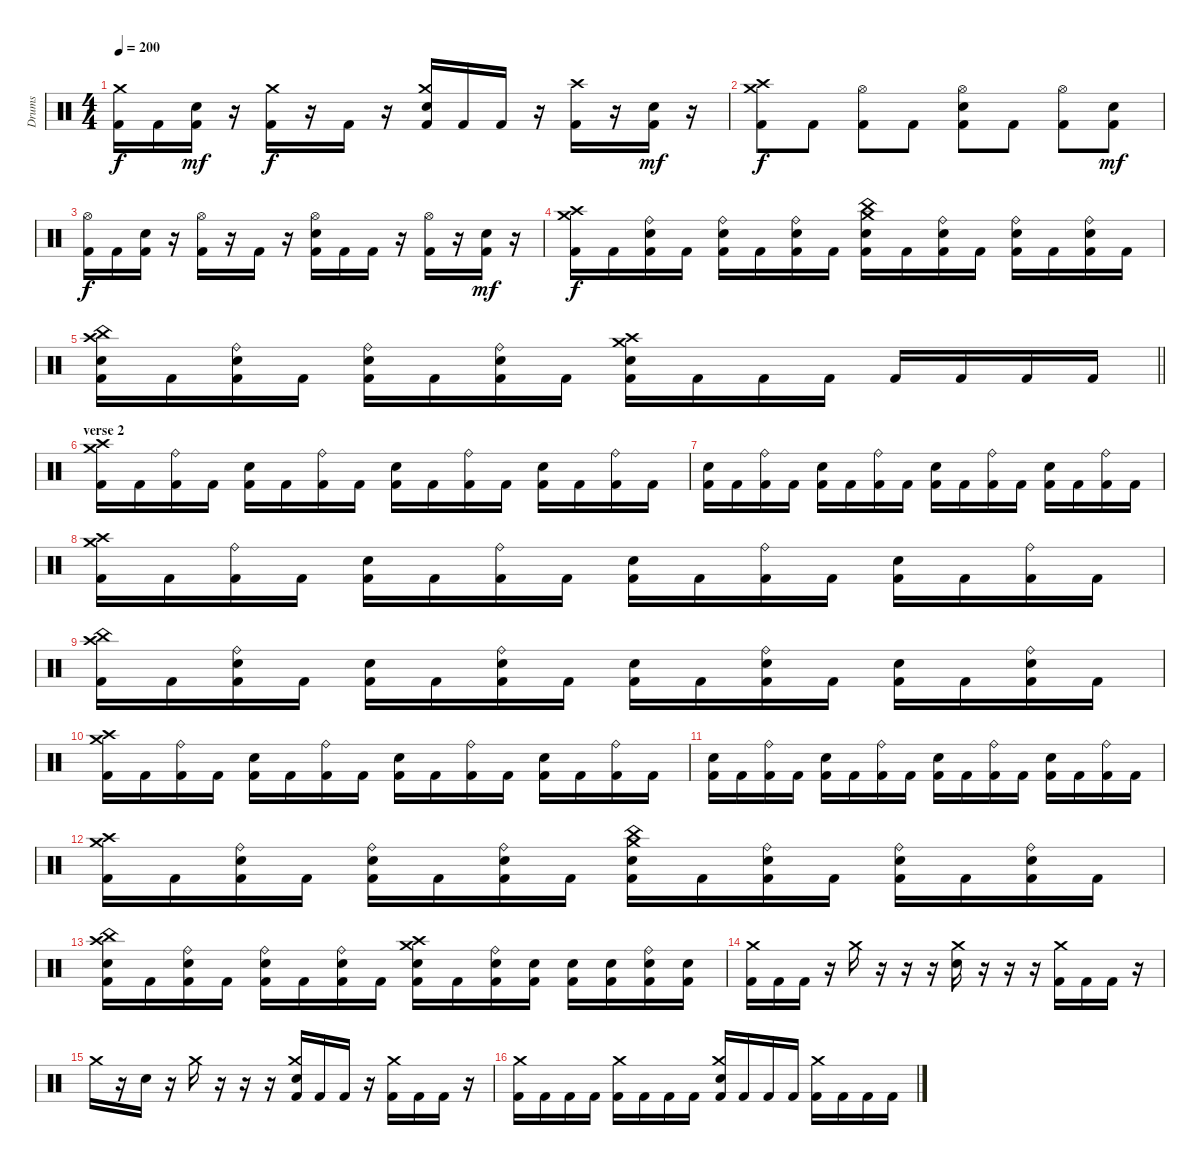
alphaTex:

\track ("Drums" "Drums") {instrument percussion}
\staff {score}
\articulation defaults
\ts (4 4)
\tempo 200
\clef neutral
\ks c
("Kick (hit) 2" "Crash medium (hit)").16{dy f} "Kick (hit) 2".16 ("Electric Snare (hit)" "Kick (hit) 2").16{dy mf} r.16 ("Kick (hit) 2" "Crash medium (hit)").16{dy f} r.16 "Kick (hit) 2".16 r.16 ("Electric Snare (hit)" "Kick (hit) 2" "Crash medium (hit)").16 "Kick (hit) 2".16 "Kick (hit) 2".16 r.16 ("Kick (hit) 2" "Crash high (hit)").16 r.16 ("Electric Snare (hit)" "Kick (hit) 2").16{dy mf} r.16 |
("Kick (hit) 2" "Crash medium (hit)" "Crash high (hit)").8{dy f} "Kick (hit) 2".8 ("Kick (hit) 2" "Hi-Hat (open)").8 "Kick (hit) 2".8 ("Electric Snare (hit)" "Kick (hit) 2" "Hi-Hat (open)").8 "Kick (hit) 2".8 ("Kick (hit) 2" "Hi-Hat (open)").8 ("Electric Snare (hit)" "Kick (hit) 2").8{dy mf} |
("Kick (hit) 2" "Hi-Hat (open)").16{dy f} "Kick (hit) 2".16 ("Electric Snare (hit)" "Kick (hit) 2").16 r.16 ("Kick (hit) 2" "Hi-Hat (open)").16 r.16 "Kick (hit) 2".16 r.16 ("Electric Snare (hit)" "Kick (hit) 2" "Hi-Hat (open)").16 "Kick (hit) 2".16 "Kick (hit) 2".16 r.16 ("Kick (hit) 2" "Hi-Hat (open)").16 r.16 ("Electric Snare (hit)" "Kick (hit) 2").16{dy mf} r.16 |
("Kick (hit) 2" "Crash medium (hit)" "Crash high (hit)").16{dy f} "Kick (hit) 2".16 ("Electric Snare (hit)" "Kick (hit) 2" "Ride (bell)").16 "Kick (hit) 2".16 ("Electric Snare (hit)" "Kick (hit) 2" "Ride (bell)").16 "Kick (hit) 2".16 ("Electric Snare (hit)" "Kick (hit) 2" "Ride (bell)").16 "Kick (hit) 2".16 ("Electric Snare (hit)" "Kick (hit) 2" "Crash medium (hit)" "China (hit)").16 "Kick (hit) 2".16 ("Electric Snare (hit)" "Kick (hit) 2" "Ride (bell)").16 "Kick (hit) 2".16 ("Electric Snare (hit)" "Kick (hit) 2" "Ride (bell)").16 "Kick (hit) 2".16 ("Electric Snare (hit)" "Kick (hit) 2" "Ride (bell)").16 "Kick (hit) 2".16 |
\barLineRight lightlight
("Electric Snare (hit)" "Kick (hit) 2" "China (hit)" "Crash high (hit)").16 "Kick (hit) 2".16 ("Electric Snare (hit)" "Kick (hit) 2" "Ride (bell)").16 "Kick (hit) 2".16 ("Electric Snare (hit)" "Kick (hit) 2" "Ride (bell)").16 "Kick (hit) 2".16 ("Electric Snare (hit)" "Kick (hit) 2" "Ride (bell)").16 "Kick (hit) 2".16 ("Electric Snare (hit)" "Kick (hit) 2" "Crash high (hit)" "Crash medium (hit)").16 "Kick (hit) 2".16 "Kick (hit) 2".16 "Kick (hit) 2".16 "Kick (hit) 2".16 "Kick (hit) 2".16 "Kick (hit) 2".16 "Kick (hit) 2".16 |
\section ("" "verse 2")
("Kick (hit) 2" "Crash medium (hit)" "Crash high (hit)").16 "Kick (hit) 2".16 ("Kick (hit) 2" "Ride (bell)").16 "Kick (hit) 2".16 ("Electric Snare (hit)" "Kick (hit) 2").16 "Kick (hit) 2".16 ("Kick (hit) 2" "Ride (bell)").16 "Kick (hit) 2".16 ("Electric Snare (hit)" "Kick (hit) 2").16 "Kick (hit) 2".16 ("Kick (hit) 2" "Ride (bell)").16 "Kick (hit) 2".16 ("Electric Snare (hit)" "Kick (hit) 2").16 "Kick (hit) 2".16 ("Kick (hit) 2" "Ride (bell)").16 "Kick (hit) 2".16 |
("Electric Snare (hit)" "Kick (hit) 2").16 "Kick (hit) 2".16 ("Kick (hit) 2" "Ride (bell)").16 "Kick (hit) 2".16 ("Electric Snare (hit)" "Kick (hit) 2").16 "Kick (hit) 2".16 ("Kick (hit) 2" "Ride (bell)").16 "Kick (hit) 2".16 ("Electric Snare (hit)" "Kick (hit) 2").16 "Kick (hit) 2".16 ("Kick (hit) 2" "Ride (bell)").16 "Kick (hit) 2".16 ("Electric Snare (hit)" "Kick (hit) 2").16 "Kick (hit) 2".16 ("Kick (hit) 2" "Ride (bell)").16 "Kick (hit) 2".16 |
("Kick (hit) 2" "Crash medium (hit)" "Crash high (hit)").16 "Kick (hit) 2".16 ("Kick (hit) 2" "Ride (bell)").16 "Kick (hit) 2".16 ("Electric Snare (hit)" "Kick (hit) 2").16 "Kick (hit) 2".16 ("Kick (hit) 2" "Ride (bell)").16 "Kick (hit) 2".16 ("Electric Snare (hit)" "Kick (hit) 2").16 "Kick (hit) 2".16 ("Kick (hit) 2" "Ride (bell)").16 "Kick (hit) 2".16 ("Electric Snare (hit)" "Kick (hit) 2").16 "Kick (hit) 2".16 ("Kick (hit) 2" "Ride (bell)").16 "Kick (hit) 2".16 |
("Kick (hit) 2" "China (hit)" "Crash high (hit)").16 "Kick (hit) 2".16 ("Electric Snare (hit)" "Kick (hit) 2" "Ride (bell)").16 "Kick (hit) 2".16 ("Electric Snare (hit)" "Kick (hit) 2").16 "Kick (hit) 2".16 ("Electric Snare (hit)" "Kick (hit) 2" "Ride (bell)").16 "Kick (hit) 2".16 ("Electric Snare (hit)" "Kick (hit) 2").16 "Kick (hit) 2".16 ("Electric Snare (hit)" "Kick (hit) 2" "Ride (bell)").16 "Kick (hit) 2".16 ("Electric Snare (hit)" "Kick (hit) 2").16 "Kick (hit) 2".16 ("Electric Snare (hit)" "Kick (hit) 2" "Ride (bell)").16 "Kick (hit) 2".16 |
("Kick (hit) 2" "Crash medium (hit)" "Crash high (hit)").16 "Kick (hit) 2".16 ("Kick (hit) 2" "Ride (bell)").16 "Kick (hit) 2".16 ("Electric Snare (hit)" "Kick (hit) 2").16 "Kick (hit) 2".16 ("Kick (hit) 2" "Ride (bell)").16 "Kick (hit) 2".16 ("Electric Snare (hit)" "Kick (hit) 2").16 "Kick (hit) 2".16 ("Kick (hit) 2" "Ride (bell)").16 "Kick (hit) 2".16 ("Electric Snare (hit)" "Kick (hit) 2").16 "Kick (hit) 2".16 ("Kick (hit) 2" "Ride (bell)").16 "Kick (hit) 2".16 |
("Electric Snare (hit)" "Kick (hit) 2").16 "Kick (hit) 2".16 ("Kick (hit) 2" "Ride (bell)").16 "Kick (hit) 2".16 ("Electric Snare (hit)" "Kick (hit) 2").16 "Kick (hit) 2".16 ("Kick (hit) 2" "Ride (bell)").16 "Kick (hit) 2".16 ("Electric Snare (hit)" "Kick (hit) 2").16 "Kick (hit) 2".16 ("Kick (hit) 2" "Ride (bell)").16 "Kick (hit) 2".16 ("Electric Snare (hit)" "Kick (hit) 2").16 "Kick (hit) 2".16 ("Kick (hit) 2" "Ride (bell)").16 "Kick (hit) 2".16 |
("Kick (hit) 2" "Crash medium (hit)" "Crash high (hit)").16 "Kick (hit) 2".16 ("Electric Snare (hit)" "Kick (hit) 2" "Ride (bell)").16 "Kick (hit) 2".16 ("Electric Snare (hit)" "Kick (hit) 2" "Ride (bell)").16 "Kick (hit) 2".16 ("Electric Snare (hit)" "Kick (hit) 2" "Ride (bell)").16 "Kick (hit) 2".16 ("Electric Snare (hit)" "Kick (hit) 2" "Crash medium (hit)" "China (hit)").16 "Kick (hit) 2".16 ("Electric Snare (hit)" "Kick (hit) 2" "Ride (bell)").16 "Kick (hit) 2".16 ("Electric Snare (hit)" "Kick (hit) 2" "Ride (bell)").16 "Kick (hit) 2".16 ("Electric Snare (hit)" "Kick (hit) 2" "Ride (bell)").16 "Kick (hit) 2".16 |
("Electric Snare (hit)" "Kick (hit) 2" "China (hit)" "Crash high (hit)").16 "Kick (hit) 2".16 ("Electric Snare (hit)" "Kick (hit) 2" "Ride (bell)").16 "Kick (hit) 2".16 ("Electric Snare (hit)" "Kick (hit) 2" "Ride (bell)").16 "Kick (hit) 2".16 ("Electric Snare (hit)" "Kick (hit) 2" "Ride (bell)").16 "Kick (hit) 2".16 ("Electric Snare (hit)" "Kick (hit) 2" "Crash high (hit)" "Crash medium (hit)").16 "Kick (hit) 2".16 ("Electric Snare (hit)" "Kick (hit) 2" "Ride (bell)").16 ("Electric Snare (hit)" "Kick (hit) 2").16 ("Electric Snare (hit)" "Kick (hit) 2").16 ("Electric Snare (hit)" "Kick (hit) 2").16 ("Electric Snare (hit)" "Kick (hit) 2" "Ride (bell)").16 ("Electric Snare (hit)" "Kick (hit) 2").16 |
("Kick (hit) 2" "Crash medium (hit)").16 "Kick (hit) 2".16 "Kick (hit) 2".16 r.16 "Crash medium (hit)".16 r.16 r.16 r.16 ("Electric Snare (hit)" "Crash medium (hit)").16 r.16 r.16 r.16 ("Kick (hit) 2" "Crash medium (hit)").16 "Kick (hit) 2".16 "Kick (hit) 2".16 r.16 |
"Crash medium (hit)".16 r.16 "Electric Snare (hit)".16 r.16 "Crash medium (hit)".16 r.16 r.16 r.16 ("Electric Snare (hit)" "Kick (hit) 2" "Crash medium (hit)").16 "Kick (hit) 2".16 "Kick (hit) 2".16 r.16 ("Kick (hit) 2" "Crash medium (hit)").16 "Kick (hit) 2".16 "Kick (hit) 2".16 r.16 |
("Kick (hit) 2" "Crash medium (hit)").16 "Kick (hit) 2".16 "Kick (hit) 2".16 "Kick (hit) 2".16 ("Kick (hit) 2" "Crash medium (hit)").16 "Kick (hit) 2".16 "Kick (hit) 2".16 "Kick (hit) 2".16 ("Electric Snare (hit)" "Kick (hit) 2" "Crash medium (hit)").16 "Kick (hit) 2".16 "Kick (hit) 2".16 "Kick (hit) 2".16 ("Kick (hit) 2" "Crash medium (hit)").16 "Kick (hit) 2".16 "Kick (hit) 2".16 "Kick (hit) 2".16
